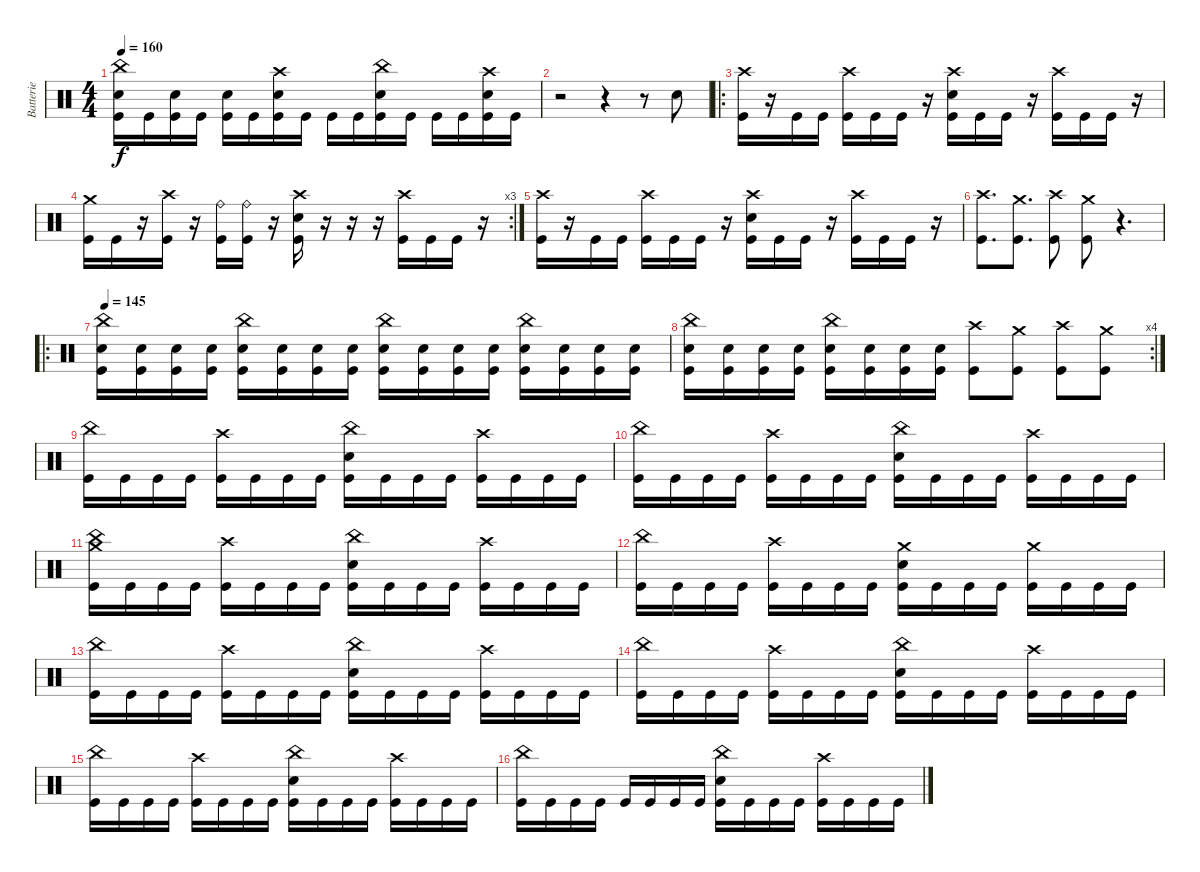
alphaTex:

\track ("Batterie" "Batterie") {instrument percussion}
\staff {score}
\articulation defaults
\ts (4 4)
\tempo 160
\clef neutral
\ks c
("China (hit)" "Electric Snare (hit)" "Kick (hit)").16{dy f} "Kick (hit)".16 ("Electric Snare (hit)" "Kick (hit)").16 "Kick (hit)".16 ("Electric Snare (hit)" "Kick (hit)").16 "Kick (hit)".16 ("Crash high (hit)" "Electric Snare (hit)" "Kick (hit)").16 "Kick (hit)".16 "Kick (hit)".16 "Kick (hit)".16 ("China (hit)" "Electric Snare (hit)" "Kick (hit)").16 "Kick (hit)".16 "Kick (hit)".16 "Kick (hit)".16 ("Crash high (hit)" "Electric Snare (hit)" "Kick (hit)").16 "Kick (hit)".16 |
r.2 r.4 r.8 "Electric Snare (hit)".8 |
\ro
("Crash high (hit)" "Kick (hit)").16 r.16 "Kick (hit)".16 "Kick (hit)".16 ("Crash high (hit)" "Kick (hit)").16 "Kick (hit)".16 "Kick (hit)".16 r.16 ("Crash high (hit)" "Electric Snare (hit)" "Kick (hit)").16 "Kick (hit)".16 "Kick (hit)".16 r.16 ("Crash high (hit)" "Kick (hit)").16 "Kick (hit)".16 "Kick (hit)".16 r.16 |
\rc 3
("Crash medium (hit)" "Kick (hit)").16 "Kick (hit)".16 r.16 ("Crash high (hit)" "Kick (hit)").16 r.16 ("Ride (bell)" "Kick (hit)").16 ("Ride (bell)" "Kick (hit)").16 r.16 ("Crash high (hit)" "Electric Snare (hit)" "Kick (hit)").16 r.16 r.16 r.16 ("Crash high (hit)" "Kick (hit)").16 "Kick (hit)".16 "Kick (hit)".16 r.16 |
("Crash high (hit)" "Kick (hit)").16 r.16 "Kick (hit)".16 "Kick (hit)".16 ("Crash high (hit)" "Kick (hit)").16 "Kick (hit)".16 "Kick (hit)".16 r.16 ("Crash high (hit)" "Electric Snare (hit)" "Kick (hit)").16 "Kick (hit)".16 "Kick (hit)".16 r.16 ("Crash high (hit)" "Kick (hit)").16 "Kick (hit)".16 "Kick (hit)".16 r.16 |
("Crash high (hit)" "Kick (hit)").8{d} ("Crash medium (hit)" "Kick (hit)").8{d} ("Crash high (hit)" "Kick (hit)").8 ("Crash medium (hit)" "Kick (hit)").8 r.4{d} |
\ro
\tempo 145
("China (hit)" "Electric Snare (hit)" "Kick (hit)").16 ("Electric Snare (hit)" "Kick (hit)").16 ("Electric Snare (hit)" "Kick (hit)").16 ("Electric Snare (hit)" "Kick (hit)").16 ("China (hit)" "Electric Snare (hit)" "Kick (hit)").16 ("Electric Snare (hit)" "Kick (hit)").16 ("Electric Snare (hit)" "Kick (hit)").16 ("Electric Snare (hit)" "Kick (hit)").16 ("China (hit)" "Electric Snare (hit)" "Kick (hit)").16 ("Electric Snare (hit)" "Kick (hit)").16 ("Electric Snare (hit)" "Kick (hit)").16 ("Electric Snare (hit)" "Kick (hit)").16 ("China (hit)" "Electric Snare (hit)" "Kick (hit)").16 ("Electric Snare (hit)" "Kick (hit)").16 ("Electric Snare (hit)" "Kick (hit)").16 ("Electric Snare (hit)" "Kick (hit)").16 |
\rc 4
("China (hit)" "Electric Snare (hit)" "Kick (hit)").16 ("Electric Snare (hit)" "Kick (hit)").16 ("Electric Snare (hit)" "Kick (hit)").16 ("Electric Snare (hit)" "Kick (hit)").16 ("China (hit)" "Electric Snare (hit)" "Kick (hit)").16 ("Electric Snare (hit)" "Kick (hit)").16 ("Electric Snare (hit)" "Kick (hit)").16 ("Electric Snare (hit)" "Kick (hit)").16 ("Crash high (hit)" "Kick (hit)").8 ("Crash medium (hit)" "Kick (hit)").8 ("Crash high (hit)" "Kick (hit)").8 ("Crash medium (hit)" "Kick (hit)").8 |
("China (hit)" "Kick (hit)").16 "Kick (hit)".16 "Kick (hit)".16 "Kick (hit)".16 ("Crash high (hit)" "Kick (hit)").16 "Kick (hit)".16 "Kick (hit)".16 "Kick (hit)".16 ("China (hit)" "Electric Snare (hit)" "Kick (hit)").16 "Kick (hit)".16 "Kick (hit)".16 "Kick (hit)".16 ("Crash high (hit)" "Kick (hit)").16 "Kick (hit)".16 "Kick (hit)".16 "Kick (hit)".16 |
("China (hit)" "Kick (hit)").16 "Kick (hit)".16 "Kick (hit)".16 "Kick (hit)".16 ("Crash high (hit)" "Kick (hit)").16 "Kick (hit)".16 "Kick (hit)".16 "Kick (hit)".16 ("China (hit)" "Electric Snare (hit)" "Kick (hit)").16 "Kick (hit)".16 "Kick (hit)".16 "Kick (hit)".16 ("Crash high (hit)" "Kick (hit)").16 "Kick (hit)".16 "Kick (hit)".16 "Kick (hit)".16 |
("China (hit)" "Crash medium (hit)" "Kick (hit)").16 "Kick (hit)".16 "Kick (hit)".16 "Kick (hit)".16 ("Crash high (hit)" "Kick (hit)").16 "Kick (hit)".16 "Kick (hit)".16 "Kick (hit)".16 ("China (hit)" "Electric Snare (hit)" "Kick (hit)").16 "Kick (hit)".16 "Kick (hit)".16 "Kick (hit)".16 ("Crash high (hit)" "Kick (hit)").16 "Kick (hit)".16 "Kick (hit)".16 "Kick (hit)".16 |
("China (hit)" "Kick (hit)").16 "Kick (hit)".16 "Kick (hit)".16 "Kick (hit)".16 ("Crash high (hit)" "Kick (hit)").16 "Kick (hit)".16 "Kick (hit)".16 "Kick (hit)".16 ("Crash medium (hit)" "Electric Snare (hit)" "Kick (hit)").16 "Kick (hit)".16 "Kick (hit)".16 "Kick (hit)".16 ("Crash medium (hit)" "Kick (hit)").16 "Kick (hit)".16 "Kick (hit)".16 "Kick (hit)".16 |
("China (hit)" "Kick (hit)").16 "Kick (hit)".16 "Kick (hit)".16 "Kick (hit)".16 ("Crash high (hit)" "Kick (hit)").16 "Kick (hit)".16 "Kick (hit)".16 "Kick (hit)".16 ("China (hit)" "Electric Snare (hit)" "Kick (hit)").16 "Kick (hit)".16 "Kick (hit)".16 "Kick (hit)".16 ("Crash high (hit)" "Kick (hit)").16 "Kick (hit)".16 "Kick (hit)".16 "Kick (hit)".16 |
("China (hit)" "Kick (hit)").16 "Kick (hit)".16 "Kick (hit)".16 "Kick (hit)".16 ("Crash high (hit)" "Kick (hit)").16 "Kick (hit)".16 "Kick (hit)".16 "Kick (hit)".16 ("China (hit)" "Electric Snare (hit)" "Kick (hit)").16 "Kick (hit)".16 "Kick (hit)".16 "Kick (hit)".16 ("Crash high (hit)" "Kick (hit)").16 "Kick (hit)".16 "Kick (hit)".16 "Kick (hit)".16 |
("China (hit)" "Kick (hit)").16 "Kick (hit)".16 "Kick (hit)".16 "Kick (hit)".16 ("Crash high (hit)" "Kick (hit)").16 "Kick (hit)".16 "Kick (hit)".16 "Kick (hit)".16 ("China (hit)" "Electric Snare (hit)" "Kick (hit)").16 "Kick (hit)".16 "Kick (hit)".16 "Kick (hit)".16 ("Crash high (hit)" "Kick (hit)").16 "Kick (hit)".16 "Kick (hit)".16 "Kick (hit)".16 |
("China (hit)" "Kick (hit)").16 "Kick (hit)".16 "Kick (hit)".16 "Kick (hit)".16 "Kick (hit)".16 "Kick (hit)".16 "Kick (hit)".16 "Kick (hit)".16 ("China (hit)" "Electric Snare (hit)" "Kick (hit)").16 "Kick (hit)".16 "Kick (hit)".16 "Kick (hit)".16 ("Crash high (hit)" "Kick (hit)").16 "Kick (hit)".16 "Kick (hit)".16 "Kick (hit)".16
